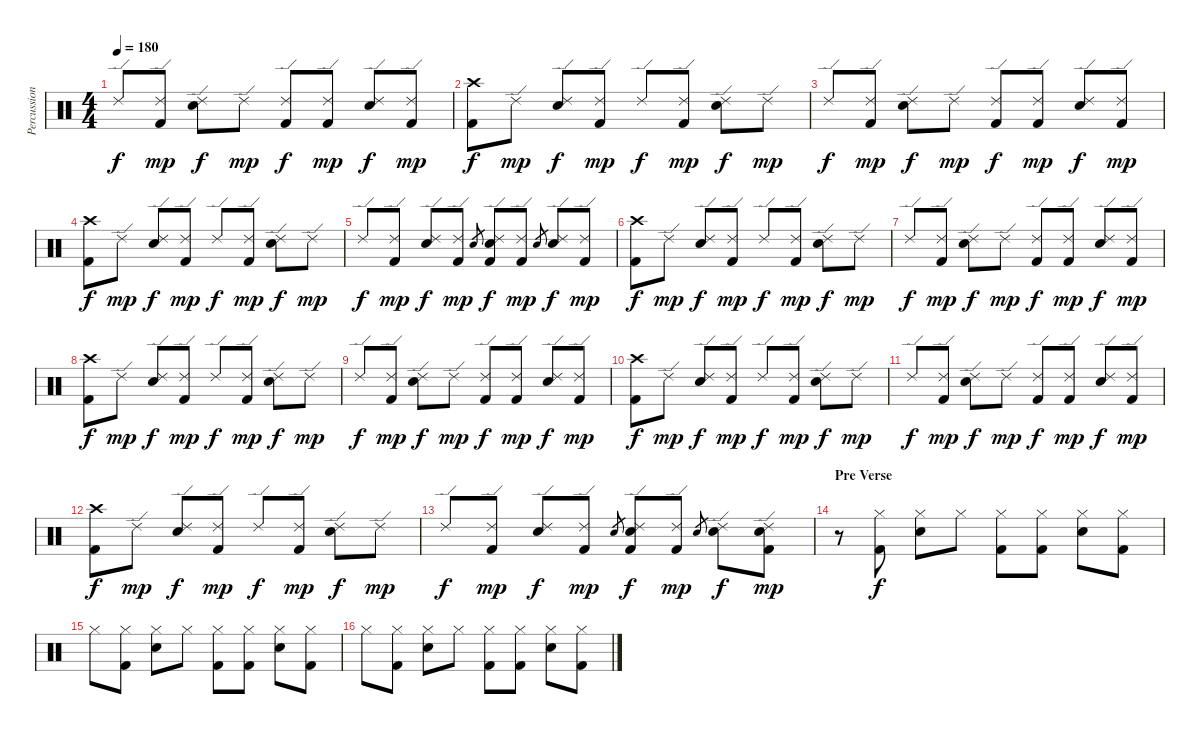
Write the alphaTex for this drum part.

\track ("Percussion" "Percussion") {instrument percussion}
\staff {score}
\articulation defaults
\ts (4 4)
\tempo 180
\clef neutral
\ks c "Ride (edge) 2".8{dy f}
("Ride (edge) 2" "Kick (hit) 2").8{dy mp} ("Ride (edge) 2" "Electric Snare (hit)").8{dy f} "Ride (edge) 2".8{dy mp} ("Ride (edge) 2" "Kick (hit) 2").8{dy f} ("Ride (edge) 2" "Kick (hit) 2").8{dy mp} ("Ride (edge) 2" "Electric Snare (hit)").8{dy f} ("Ride (edge) 2" "Kick (hit) 2").8{dy mp} |
("Crash high (hit)" "Kick (hit) 2").8{dy f} "Ride (edge) 2".8{dy mp} ("Ride (edge) 2" "Electric Snare (hit)").8{dy f} ("Ride (edge) 2" "Kick (hit) 2").8{dy mp} "Ride (edge) 2".8{dy f} ("Ride (edge) 2" "Kick (hit) 2").8{dy mp} ("Ride (edge) 2" "Electric Snare (hit)").8{dy f} "Ride (edge) 2".8{dy mp} |
"Ride (edge) 2".8{dy f} ("Ride (edge) 2" "Kick (hit) 2").8{dy mp} ("Ride (edge) 2" "Electric Snare (hit)").8{dy f} "Ride (edge) 2".8{dy mp} ("Ride (edge) 2" "Kick (hit) 2").8{dy f} ("Ride (edge) 2" "Kick (hit) 2").8{dy mp} ("Ride (edge) 2" "Electric Snare (hit)").8{dy f} ("Ride (edge) 2" "Kick (hit) 2").8{dy mp} |
("Crash high (hit)" "Kick (hit) 2").8{dy f} "Ride (edge) 2".8{dy mp} ("Ride (edge) 2" "Electric Snare (hit)").8{dy f} ("Ride (edge) 2" "Kick (hit) 2").8{dy mp} "Ride (edge) 2".8{dy f} ("Ride (edge) 2" "Kick (hit) 2").8{dy mp} ("Ride (edge) 2" "Electric Snare (hit)").8{dy f} "Ride (edge) 2".8{dy mp} |
"Ride (edge) 2".8{dy f} ("Ride (edge) 2" "Kick (hit) 2").8{dy mp} ("Ride (edge) 2" "Electric Snare (hit)").8{dy f} ("Ride (edge) 2" "Kick (hit) 2").8{dy mp} "Electric Snare (hit)".8{gr} ("Ride (edge) 2" "Electric Snare (hit)" "Kick (hit) 2").8{dy f} ("Ride (edge) 2" "Kick (hit) 2").8{dy mp} "Electric Snare (hit)".8{gr} ("Ride (edge) 2" "Electric Snare (hit)").8{dy f} ("Ride (edge) 2" "Kick (hit) 2").8{dy mp} |
("Crash high (hit)" "Kick (hit) 2").8{dy f} "Ride (edge) 2".8{dy mp} ("Ride (edge) 2" "Electric Snare (hit)").8{dy f} ("Ride (edge) 2" "Kick (hit) 2").8{dy mp} "Ride (edge) 2".8{dy f} ("Ride (edge) 2" "Kick (hit) 2").8{dy mp} ("Ride (edge) 2" "Electric Snare (hit)").8{dy f} "Ride (edge) 2".8{dy mp} |
"Ride (edge) 2".8{dy f} ("Ride (edge) 2" "Kick (hit) 2").8{dy mp} ("Ride (edge) 2" "Electric Snare (hit)").8{dy f} "Ride (edge) 2".8{dy mp} ("Ride (edge) 2" "Kick (hit) 2").8{dy f} ("Ride (edge) 2" "Kick (hit) 2").8{dy mp} ("Ride (edge) 2" "Electric Snare (hit)").8{dy f} ("Ride (edge) 2" "Kick (hit) 2").8{dy mp} |
("Crash high (hit)" "Kick (hit) 2").8{dy f} "Ride (edge) 2".8{dy mp} ("Ride (edge) 2" "Electric Snare (hit)").8{dy f} ("Ride (edge) 2" "Kick (hit) 2").8{dy mp} "Ride (edge) 2".8{dy f} ("Ride (edge) 2" "Kick (hit) 2").8{dy mp} ("Ride (edge) 2" "Electric Snare (hit)").8{dy f} "Ride (edge) 2".8{dy mp} |
"Ride (edge) 2".8{dy f} ("Ride (edge) 2" "Kick (hit) 2").8{dy mp} ("Ride (edge) 2" "Electric Snare (hit)").8{dy f} "Ride (edge) 2".8{dy mp} ("Ride (edge) 2" "Kick (hit) 2").8{dy f} ("Ride (edge) 2" "Kick (hit) 2").8{dy mp} ("Ride (edge) 2" "Electric Snare (hit)").8{dy f} ("Ride (edge) 2" "Kick (hit) 2").8{dy mp} |
("Crash high (hit)" "Kick (hit) 2").8{dy f} "Ride (edge) 2".8{dy mp} ("Ride (edge) 2" "Electric Snare (hit)").8{dy f} ("Ride (edge) 2" "Kick (hit) 2").8{dy mp} "Ride (edge) 2".8{dy f} ("Ride (edge) 2" "Kick (hit) 2").8{dy mp} ("Ride (edge) 2" "Electric Snare (hit)").8{dy f} "Ride (edge) 2".8{dy mp} |
"Ride (edge) 2".8{dy f} ("Ride (edge) 2" "Kick (hit) 2").8{dy mp} ("Ride (edge) 2" "Electric Snare (hit)").8{dy f} "Ride (edge) 2".8{dy mp} ("Ride (edge) 2" "Kick (hit) 2").8{dy f} ("Ride (edge) 2" "Kick (hit) 2").8{dy mp} ("Ride (edge) 2" "Electric Snare (hit)").8{dy f} ("Ride (edge) 2" "Kick (hit) 2").8{dy mp} |
("Crash high (hit)" "Kick (hit) 2").8{dy f} "Ride (edge) 2".8{dy mp} ("Ride (edge) 2" "Electric Snare (hit)").8{dy f} ("Ride (edge) 2" "Kick (hit) 2").8{dy mp} "Ride (edge) 2".8{dy f} ("Ride (edge) 2" "Kick (hit) 2").8{dy mp} ("Ride (edge) 2" "Electric Snare (hit)").8{dy f} "Ride (edge) 2".8{dy mp} |
"Ride (edge) 2".8{dy f} ("Ride (edge) 2" "Kick (hit) 2").8{dy mp} ("Ride (edge) 2" "Electric Snare (hit)").8{dy f} ("Ride (edge) 2" "Kick (hit) 2").8{dy mp} "Electric Snare (hit)".8{gr} ("Ride (edge) 2" "Electric Snare (hit)" "Kick (hit) 2").8{dy f} ("Ride (edge) 2" "Kick (hit) 2").8{dy mp} "Electric Snare (hit)".8{gr} ("Ride (edge) 2" "Electric Snare (hit)").8{dy f} ("Ride (edge) 2" "Electric Snare (hit)" "Kick (hit) 2").8{dy mp} |
\section ("" "Pre Verse")
r.8 ("Hi-Hat (closed)" "Kick (hit) 2").8{dy f} ("Hi-Hat (closed)" "Electric Snare (hit)").8 "Hi-Hat (closed)".8 ("Hi-Hat (closed)" "Kick (hit) 2").8 ("Hi-Hat (closed)" "Kick (hit) 2").8 ("Hi-Hat (closed)" "Electric Snare (hit)").8 ("Hi-Hat (closed)" "Kick (hit) 2").8 |
"Hi-Hat (closed)".8 ("Hi-Hat (closed)" "Kick (hit) 2").8 ("Hi-Hat (closed)" "Electric Snare (hit)").8 "Hi-Hat (closed)".8 ("Hi-Hat (closed)" "Kick (hit) 2").8 ("Hi-Hat (closed)" "Kick (hit) 2").8 ("Hi-Hat (closed)" "Electric Snare (hit)").8 ("Hi-Hat (closed)" "Kick (hit) 2").8 |
"Hi-Hat (closed)".8 ("Hi-Hat (closed)" "Kick (hit) 2").8 ("Hi-Hat (closed)" "Electric Snare (hit)").8 "Hi-Hat (closed)".8 ("Hi-Hat (closed)" "Kick (hit) 2").8 ("Hi-Hat (closed)" "Kick (hit) 2").8 ("Hi-Hat (closed)" "Electric Snare (hit)").8 ("Hi-Hat (closed)" "Kick (hit) 2").8
